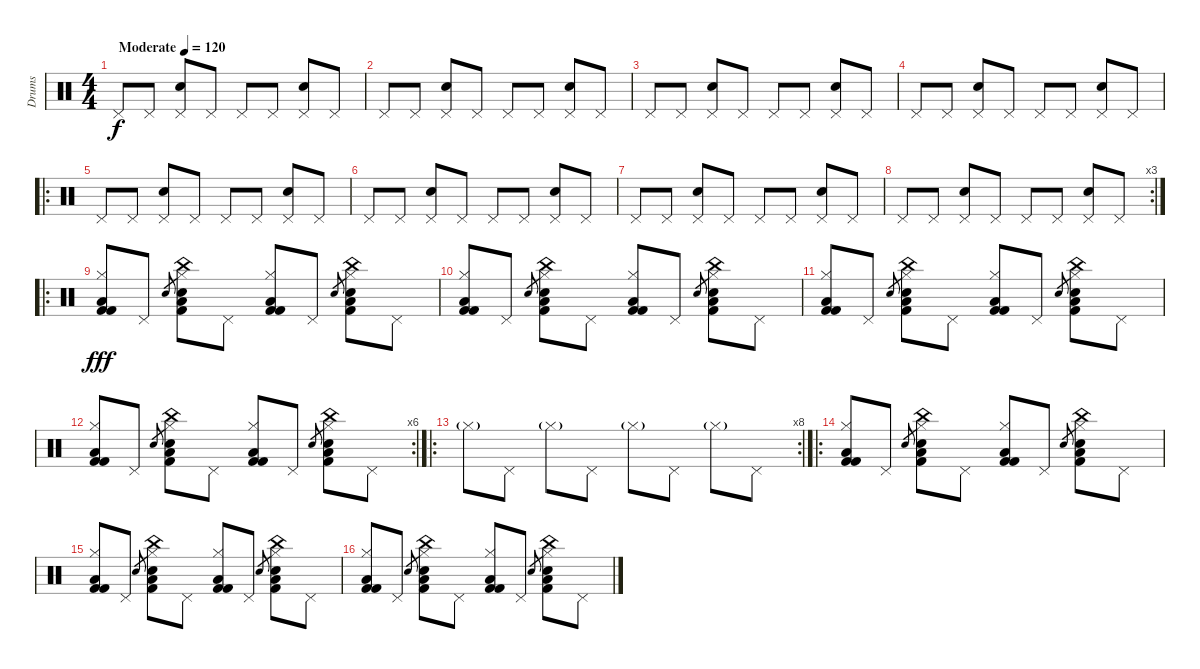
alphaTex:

\track ("Drums" "Drums") {instrument percussion}
\staff {score}
\articulation defaults
\ts (4 4)
\tempo (120 "Moderate")
\clef neutral
\ks c "Pedal Hi-Hat (hit)".8{dy f} "Pedal Hi-Hat (hit)".8
("Pedal Hi-Hat (hit)" "Electric Snare (hit)").8 "Pedal Hi-Hat (hit)".8 "Pedal Hi-Hat (hit)".8 "Pedal Hi-Hat (hit)".8 ("Pedal Hi-Hat (hit)" "Electric Snare (hit)").8 "Pedal Hi-Hat (hit)".8 |
"Pedal Hi-Hat (hit)".8 "Pedal Hi-Hat (hit)".8 ("Pedal Hi-Hat (hit)" "Electric Snare (hit)").8 "Pedal Hi-Hat (hit)".8 "Pedal Hi-Hat (hit)".8 "Pedal Hi-Hat (hit)".8 ("Pedal Hi-Hat (hit)" "Electric Snare (hit)").8 "Pedal Hi-Hat (hit)".8 |
"Pedal Hi-Hat (hit)".8 "Pedal Hi-Hat (hit)".8 ("Pedal Hi-Hat (hit)" "Electric Snare (hit)").8 "Pedal Hi-Hat (hit)".8 "Pedal Hi-Hat (hit)".8 "Pedal Hi-Hat (hit)".8 ("Pedal Hi-Hat (hit)" "Electric Snare (hit)").8 "Pedal Hi-Hat (hit)".8 |
"Pedal Hi-Hat (hit)".8 "Pedal Hi-Hat (hit)".8 ("Pedal Hi-Hat (hit)" "Electric Snare (hit)").8 "Pedal Hi-Hat (hit)".8 "Pedal Hi-Hat (hit)".8 "Pedal Hi-Hat (hit)".8 ("Pedal Hi-Hat (hit)" "Electric Snare (hit)").8 "Pedal Hi-Hat (hit)".8 |
\ro "Pedal Hi-Hat (hit)".8 "Pedal Hi-Hat (hit)".8
("Pedal Hi-Hat (hit)" "Electric Snare (hit)").8 "Pedal Hi-Hat (hit)".8 "Pedal Hi-Hat (hit)".8 "Pedal Hi-Hat (hit)".8 ("Pedal Hi-Hat (hit)" "Electric Snare (hit)").8 "Pedal Hi-Hat (hit)".8 |
"Pedal Hi-Hat (hit)".8 "Pedal Hi-Hat (hit)".8 ("Pedal Hi-Hat (hit)" "Electric Snare (hit)").8 "Pedal Hi-Hat (hit)".8 "Pedal Hi-Hat (hit)".8 "Pedal Hi-Hat (hit)".8 ("Pedal Hi-Hat (hit)" "Electric Snare (hit)").8 "Pedal Hi-Hat (hit)".8 |
"Pedal Hi-Hat (hit)".8 "Pedal Hi-Hat (hit)".8 ("Pedal Hi-Hat (hit)" "Electric Snare (hit)").8 "Pedal Hi-Hat (hit)".8 "Pedal Hi-Hat (hit)".8 "Pedal Hi-Hat (hit)".8 ("Pedal Hi-Hat (hit)" "Electric Snare (hit)").8 "Pedal Hi-Hat (hit)".8 |
\rc 3 "Pedal Hi-Hat (hit)".8 "Pedal Hi-Hat (hit)".8
("Pedal Hi-Hat (hit)" "Electric Snare (hit)").8 "Pedal Hi-Hat (hit)".8 "Pedal Hi-Hat (hit)".8 "Pedal Hi-Hat (hit)".8 ("Pedal Hi-Hat (hit)" "Electric Snare (hit)").8 "Pedal Hi-Hat (hit)".8 |
\ro
("Kick (hit) 2" "Hi-Hat (closed)" "Low Floor Tom (hit)" "Kick (hit) 2").8{dy fff} "Pedal Hi-Hat (hit)".8 "Hand Clap (hit)".8{gr} ("Kick (hit) 2" "Hi-Hat (closed)" "Electric Snare (hit)" "China (hit)" "Low Floor Tom (hit)").8 "Pedal Hi-Hat (hit)".8 ("Kick (hit) 2" "Hi-Hat (closed)" "Low Floor Tom (hit)" "Kick (hit) 2").8 "Pedal Hi-Hat (hit)".8 "Hand Clap (hit)".8{gr} ("Kick (hit) 2" "Hi-Hat (closed)" "Electric Snare (hit)" "China (hit)" "Low Floor Tom (hit)").8 "Pedal Hi-Hat (hit)".8 |
("Kick (hit) 2" "Hi-Hat (closed)" "Low Floor Tom (hit)" "Kick (hit) 2").8 "Pedal Hi-Hat (hit)".8 "Hand Clap (hit)".8{gr} ("Kick (hit) 2" "Hi-Hat (closed)" "Electric Snare (hit)" "China (hit)" "Low Floor Tom (hit)").8 "Pedal Hi-Hat (hit)".8 ("Kick (hit) 2" "Hi-Hat (closed)" "Low Floor Tom (hit)" "Kick (hit) 2").8 "Pedal Hi-Hat (hit)".8 "Hand Clap (hit)".8{gr} ("Kick (hit) 2" "Hi-Hat (closed)" "Electric Snare (hit)" "China (hit)" "Low Floor Tom (hit)").8 "Pedal Hi-Hat (hit)".8 |
("Kick (hit) 2" "Hi-Hat (closed)" "Low Floor Tom (hit)" "Kick (hit) 2").8 "Pedal Hi-Hat (hit)".8 "Hand Clap (hit)".8{gr} ("Kick (hit) 2" "Hi-Hat (closed)" "Electric Snare (hit)" "China (hit)" "Low Floor Tom (hit)").8 "Pedal Hi-Hat (hit)".8 ("Kick (hit) 2" "Hi-Hat (closed)" "Low Floor Tom (hit)" "Kick (hit) 2").8 "Pedal Hi-Hat (hit)".8 "Hand Clap (hit)".8{gr} ("Kick (hit) 2" "Hi-Hat (closed)" "Electric Snare (hit)" "China (hit)" "Low Floor Tom (hit)").8 "Pedal Hi-Hat (hit)".8 |
\rc 6
("Kick (hit) 2" "Hi-Hat (closed)" "Low Floor Tom (hit)" "Kick (hit) 2").8 "Pedal Hi-Hat (hit)".8 "Hand Clap (hit)".8{gr} ("Kick (hit) 2" "Hi-Hat (closed)" "Electric Snare (hit)" "China (hit)" "Low Floor Tom (hit)").8 "Pedal Hi-Hat (hit)".8 ("Kick (hit) 2" "Hi-Hat (closed)" "Low Floor Tom (hit)" "Kick (hit) 2").8 "Pedal Hi-Hat (hit)".8 "Hand Clap (hit)".8{gr} ("Kick (hit) 2" "Hi-Hat (closed)" "Electric Snare (hit)" "China (hit)" "Low Floor Tom (hit)").8 "Pedal Hi-Hat (hit)".8 |
\ro
\rc 8 "Hi-Hat (closed)"{g}.8{volume 10} "Pedal Hi-Hat (hit)".8 "Hi-Hat (closed)"{g}.8 "Pedal Hi-Hat (hit)".8 "Hi-Hat (closed)"{g}.8 "Pedal Hi-Hat (hit)".8 "Hi-Hat (closed)"{g}.8 "Pedal Hi-Hat (hit)".8
|
\ro
("Kick (hit) 2" "Hi-Hat (closed)" "Low Floor Tom (hit)" "Kick (hit) 2").8{volume 16} "Pedal Hi-Hat (hit)".8 "Hand Clap (hit)".8{gr} ("Kick (hit) 2" "Hi-Hat (closed)" "Electric Snare (hit)" "China (hit)" "Low Floor Tom (hit)").8 "Pedal Hi-Hat (hit)".8 ("Kick (hit) 2" "Hi-Hat (closed)" "Low Floor Tom (hit)" "Kick (hit) 2").8 "Pedal Hi-Hat (hit)".8 "Hand Clap (hit)".8{gr} ("Kick (hit) 2" "Hi-Hat (closed)" "Electric Snare (hit)" "China (hit)" "Low Floor Tom (hit)").8 "Pedal Hi-Hat (hit)".8 |
("Kick (hit) 2" "Hi-Hat (closed)" "Low Floor Tom (hit)" "Kick (hit) 2").8 "Pedal Hi-Hat (hit)".8 "Hand Clap (hit)".8{gr} ("Kick (hit) 2" "Hi-Hat (closed)" "Electric Snare (hit)" "China (hit)" "Low Floor Tom (hit)").8 "Pedal Hi-Hat (hit)".8 ("Kick (hit) 2" "Hi-Hat (closed)" "Low Floor Tom (hit)" "Kick (hit) 2").8 "Pedal Hi-Hat (hit)".8 "Hand Clap (hit)".8{gr} ("Kick (hit) 2" "Hi-Hat (closed)" "Electric Snare (hit)" "China (hit)" "Low Floor Tom (hit)").8 "Pedal Hi-Hat (hit)".8 |
("Kick (hit) 2" "Hi-Hat (closed)" "Low Floor Tom (hit)" "Kick (hit) 2").8 "Pedal Hi-Hat (hit)".8 "Hand Clap (hit)".8{gr} ("Kick (hit) 2" "Hi-Hat (closed)" "Electric Snare (hit)" "China (hit)" "Low Floor Tom (hit)").8 "Pedal Hi-Hat (hit)".8 ("Kick (hit) 2" "Hi-Hat (closed)" "Low Floor Tom (hit)" "Kick (hit) 2").8 "Pedal Hi-Hat (hit)".8 "Hand Clap (hit)".8{gr} ("Kick (hit) 2" "Hi-Hat (closed)" "Electric Snare (hit)" "China (hit)" "Low Floor Tom (hit)").8 "Pedal Hi-Hat (hit)".8
